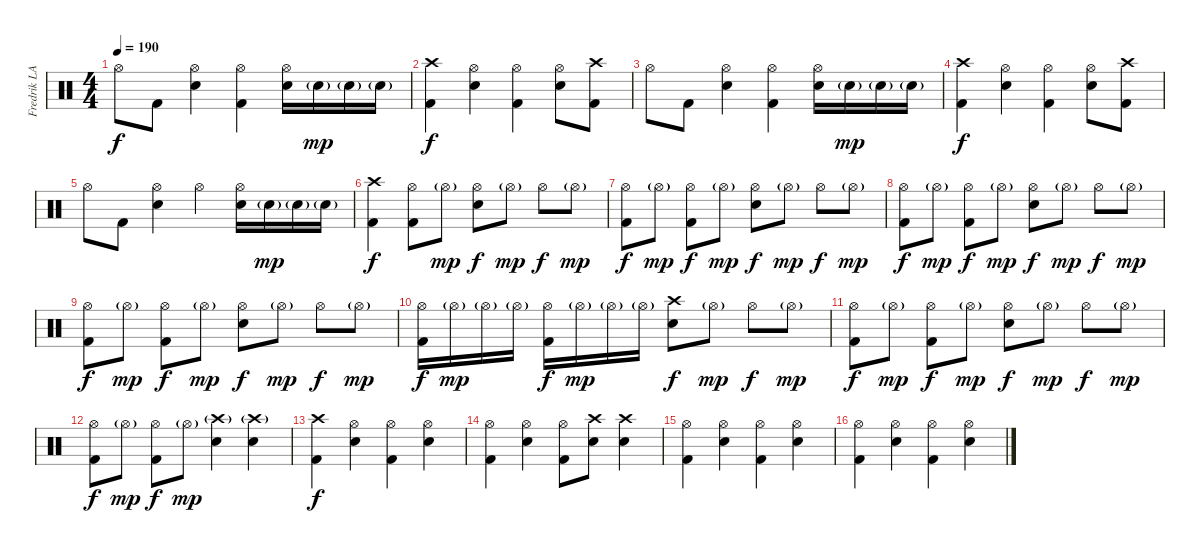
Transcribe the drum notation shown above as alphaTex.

\track ("Fredrik LARZON" "Fredrik LA") {instrument percussion}
\staff {score}
\articulation defaults
\ts (4 4)
\tempo 190
\clef neutral
\ks c "Hi-Hat (open)".8{dy f} "Kick (hit) 2".8
("Hi-Hat (open)" "Electric Snare (hit)").4 ("Hi-Hat (open)" "Kick (hit) 2").4 ("Hi-Hat (open)" "Electric Snare (hit)").16 "Electric Snare (hit)"{g}.16{dy mp} "Electric Snare (hit)"{g}.16 "Electric Snare (hit)"{g}.16 |
("Crash high (hit)" "Kick (hit) 2").4{dy f} ("Hi-Hat (open)" "Electric Snare (hit)").4 ("Hi-Hat (open)" "Kick (hit) 2").4 ("Hi-Hat (open)" "Electric Snare (hit)").8 ("Crash high (hit)" "Kick (hit) 2").8 |
"Hi-Hat (open)".8 "Kick (hit) 2".8 ("Hi-Hat (open)" "Electric Snare (hit)").4 ("Hi-Hat (open)" "Kick (hit) 2").4 ("Hi-Hat (open)" "Electric Snare (hit)").16 "Electric Snare (hit)"{g}.16{dy mp} "Electric Snare (hit)"{g}.16 "Electric Snare (hit)"{g}.16 |
("Crash high (hit)" "Kick (hit) 2").4{dy f} ("Hi-Hat (open)" "Electric Snare (hit)").4 ("Hi-Hat (open)" "Kick (hit) 2").4 ("Hi-Hat (open)" "Electric Snare (hit)").8 ("Crash high (hit)" "Kick (hit) 2").8 |
"Hi-Hat (open)".8 "Kick (hit) 2".8 ("Hi-Hat (open)" "Electric Snare (hit)").4 "Hi-Hat (open)".4 ("Hi-Hat (open)" "Electric Snare (hit)").16 "Electric Snare (hit)"{g}.16{dy mp} "Electric Snare (hit)"{g}.16 "Electric Snare (hit)"{g}.16 |
("Crash high (hit)" "Kick (hit) 2").4{dy f} ("Hi-Hat (open)" "Kick (hit) 2").8 "Hi-Hat (open)"{g}.8{dy mp} ("Hi-Hat (open)" "Electric Snare (hit)").8{dy f} "Hi-Hat (open)"{g}.8{dy mp} "Hi-Hat (open)".8{dy f} "Hi-Hat (open)"{g}.8{dy mp} |
("Hi-Hat (open)" "Kick (hit) 2").8{dy f} "Hi-Hat (open)"{g}.8{dy mp} ("Hi-Hat (open)" "Kick (hit) 2").8{dy f} "Hi-Hat (open)"{g}.8{dy mp} ("Hi-Hat (open)" "Electric Snare (hit)").8{dy f} "Hi-Hat (open)"{g}.8{dy mp} "Hi-Hat (open)".8{dy f} "Hi-Hat (open)"{g}.8{dy mp} |
("Hi-Hat (open)" "Kick (hit) 2").8{dy f} "Hi-Hat (open)"{g}.8{dy mp} ("Hi-Hat (open)" "Kick (hit) 2").8{dy f} "Hi-Hat (open)"{g}.8{dy mp} ("Hi-Hat (open)" "Electric Snare (hit)").8{dy f} "Hi-Hat (open)"{g}.8{dy mp} "Hi-Hat (open)".8{dy f} "Hi-Hat (open)"{g}.8{dy mp} |
("Hi-Hat (open)" "Kick (hit) 2").8{dy f} "Hi-Hat (open)"{g}.8{dy mp} ("Hi-Hat (open)" "Kick (hit) 2").8{dy f} "Hi-Hat (open)"{g}.8{dy mp} ("Hi-Hat (open)" "Electric Snare (hit)").8{dy f} "Hi-Hat (open)"{g}.8{dy mp} "Hi-Hat (open)".8{dy f} "Hi-Hat (open)"{g}.8{dy mp} |
("Hi-Hat (open)" "Kick (hit) 2").16{dy f} "Hi-Hat (open)"{g}.16{dy mp} "Hi-Hat (open)"{g}.16 "Hi-Hat (open)"{g}.16 ("Hi-Hat (open)" "Kick (hit) 2").16{dy f} "Hi-Hat (open)"{g}.16{dy mp} "Hi-Hat (open)"{g}.16 "Hi-Hat (open)"{g}.16 ("Crash high (hit)" "Electric Snare (hit)").8{dy f} "Hi-Hat (open)"{g}.8{dy mp} "Hi-Hat (open)".8{dy f} "Hi-Hat (open)"{g}.8{dy mp} |
("Hi-Hat (open)" "Kick (hit) 2").8{dy f} "Hi-Hat (open)"{g}.8{dy mp} ("Hi-Hat (open)" "Kick (hit) 2").8{dy f} "Hi-Hat (open)"{g}.8{dy mp} ("Hi-Hat (open)" "Electric Snare (hit)").8{dy f} "Hi-Hat (open)"{g}.8{dy mp} "Hi-Hat (open)".8{dy f} "Hi-Hat (open)"{g}.8{dy mp} |
("Hi-Hat (open)" "Kick (hit) 2").8{dy f} "Hi-Hat (open)"{g}.8{dy mp} ("Hi-Hat (open)" "Kick (hit) 2").8{dy f} "Hi-Hat (open)"{g}.8{dy mp} ("Crash high (hit)"{g} "Electric Snare (hit)").4 ("Crash high (hit)"{g} "Electric Snare (hit)").4 |
("Crash high (hit)" "Kick (hit) 2").4{dy f} ("Hi-Hat (open)" "Electric Snare (hit)").4 ("Hi-Hat (open)" "Kick (hit) 2").4 ("Hi-Hat (open)" "Electric Snare (hit)").4 |
("Hi-Hat (open)" "Kick (hit) 2").4 ("Hi-Hat (open)" "Electric Snare (hit)").4 ("Hi-Hat (open)" "Kick (hit) 2").8 ("Crash high (hit)" "Electric Snare (hit)").8 ("Crash high (hit)" "Electric Snare (hit)").4 |
("Hi-Hat (open)" "Kick (hit) 2").4 ("Hi-Hat (open)" "Electric Snare (hit)").4 ("Hi-Hat (open)" "Kick (hit) 2").4 ("Hi-Hat (open)" "Electric Snare (hit)").4 |
("Hi-Hat (open)" "Kick (hit) 2").4 ("Hi-Hat (open)" "Electric Snare (hit)").4 ("Hi-Hat (open)" "Kick (hit) 2").4 ("Hi-Hat (open)" "Electric Snare (hit)").4
